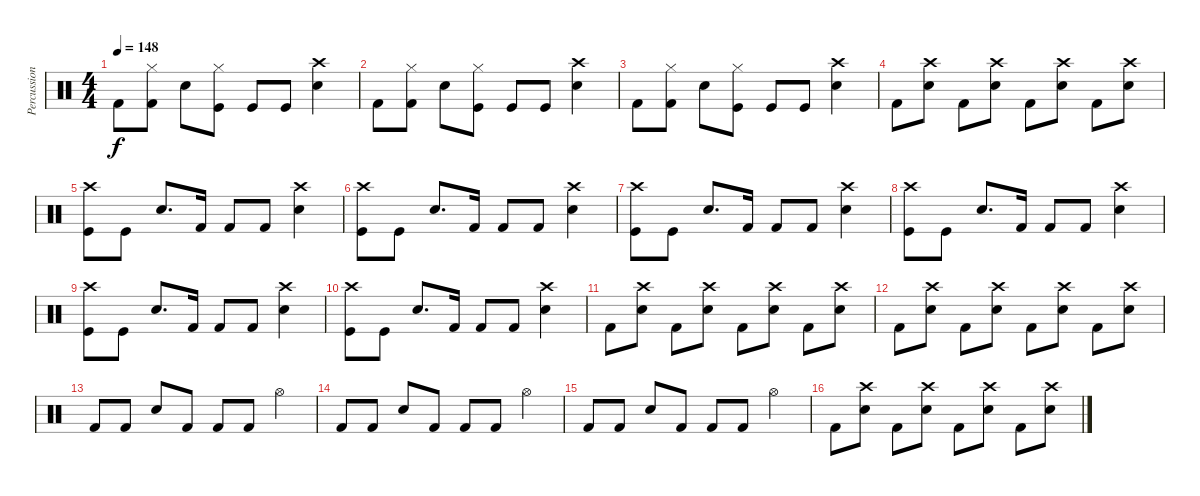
\track ("Percussion" "Percussion") {instrument percussion}
\staff {score}
\articulation defaults
\ts (4 4)
\tempo 148
\clef neutral
\ks c "Kick (hit) 2".8{dy f}
("Hi-Hat (closed)" "Kick (hit) 2").8 "Snare (hit) 2".8 ("Hi-Hat (closed)" "Kick (hit)").8 "Kick (hit)".8 "Kick (hit)".8 ("Crash high (hit)" "Snare (hit) 2").4 |
"Kick (hit) 2".8 ("Hi-Hat (closed)" "Kick (hit) 2").8 "Snare (hit) 2".8 ("Hi-Hat (closed)" "Kick (hit)").8 "Kick (hit)".8 "Kick (hit)".8 ("Crash high (hit)" "Snare (hit) 2").4 |
"Kick (hit) 2".8 ("Hi-Hat (closed)" "Kick (hit) 2").8 "Snare (hit) 2".8 ("Hi-Hat (closed)" "Kick (hit)").8 "Kick (hit)".8 "Kick (hit)".8 ("Crash high (hit)" "Snare (hit) 2").4 |
"Kick (hit) 2".8 ("Crash high (hit)" "Snare (hit) 2").8 "Kick (hit) 2".8 ("Crash high (hit)" "Snare (hit) 2").8 "Kick (hit) 2".8 ("Crash high (hit)" "Snare (hit) 2").8 "Kick (hit) 2".8 ("Crash high (hit)" "Snare (hit) 2").8 |
("Crash high (hit)" "Kick (hit)").8 "Kick (hit)".8 "Snare (hit) 2".8{d} "Kick (hit) 2".16 "Kick (hit) 2".8 "Kick (hit) 2".8 ("Crash high (hit)" "Snare (hit) 2").4 |
("Crash high (hit)" "Kick (hit)").8 "Kick (hit)".8 "Snare (hit) 2".8{d} "Kick (hit) 2".16 "Kick (hit) 2".8 "Kick (hit) 2".8 ("Crash high (hit)" "Snare (hit) 2").4 |
("Crash high (hit)" "Kick (hit)").8 "Kick (hit)".8 "Snare (hit) 2".8{d} "Kick (hit) 2".16 "Kick (hit) 2".8 "Kick (hit) 2".8 ("Crash high (hit)" "Snare (hit) 2").4 |
("Crash high (hit)" "Kick (hit)").8 "Kick (hit)".8 "Snare (hit) 2".8{d} "Kick (hit) 2".16 "Kick (hit) 2".8 "Kick (hit) 2".8 ("Crash high (hit)" "Snare (hit) 2").4 |
("Crash high (hit)" "Kick (hit)").8 "Kick (hit)".8 "Snare (hit) 2".8{d} "Kick (hit) 2".16 "Kick (hit) 2".8 "Kick (hit) 2".8 ("Crash high (hit)" "Snare (hit) 2").4 |
("Crash high (hit)" "Kick (hit)").8 "Kick (hit)".8 "Snare (hit) 2".8{d} "Kick (hit) 2".16 "Kick (hit) 2".8 "Kick (hit) 2".8 ("Crash high (hit)" "Snare (hit) 2").4 |
"Kick (hit) 2".8 ("Crash high (hit)" "Snare (hit) 2").8 "Kick (hit) 2".8 ("Crash high (hit)" "Snare (hit) 2").8 "Kick (hit) 2".8 ("Crash high (hit)" "Snare (hit) 2").8 "Kick (hit) 2".8 ("Crash high (hit)" "Snare (hit) 2").8 |
"Kick (hit) 2".8 ("Crash high (hit)" "Snare (hit) 2").8 "Kick (hit) 2".8 ("Crash high (hit)" "Snare (hit) 2").8 "Kick (hit) 2".8 ("Crash high (hit)" "Snare (hit) 2").8 "Kick (hit) 2".8 ("Crash high (hit)" "Snare (hit) 2").8 |
"Kick (hit) 2".8 "Kick (hit) 2".8 "Snare (hit) 2".8 "Kick (hit) 2".8 "Kick (hit) 2".8 "Kick (hit) 2".8 "Hi-Hat (open)".4 |
"Kick (hit) 2".8 "Kick (hit) 2".8 "Snare (hit) 2".8 "Kick (hit) 2".8 "Kick (hit) 2".8 "Kick (hit) 2".8 "Hi-Hat (open)".4 |
"Kick (hit) 2".8 "Kick (hit) 2".8 "Snare (hit) 2".8 "Kick (hit) 2".8 "Kick (hit) 2".8 "Kick (hit) 2".8 "Hi-Hat (open)".4 |
"Kick (hit) 2".8 ("Crash high (hit)" "Snare (hit) 2").8 "Kick (hit) 2".8 ("Crash high (hit)" "Snare (hit) 2").8 "Kick (hit) 2".8 ("Crash high (hit)" "Snare (hit) 2").8 "Kick (hit) 2".8 ("Crash high (hit)" "Snare (hit) 2").8
